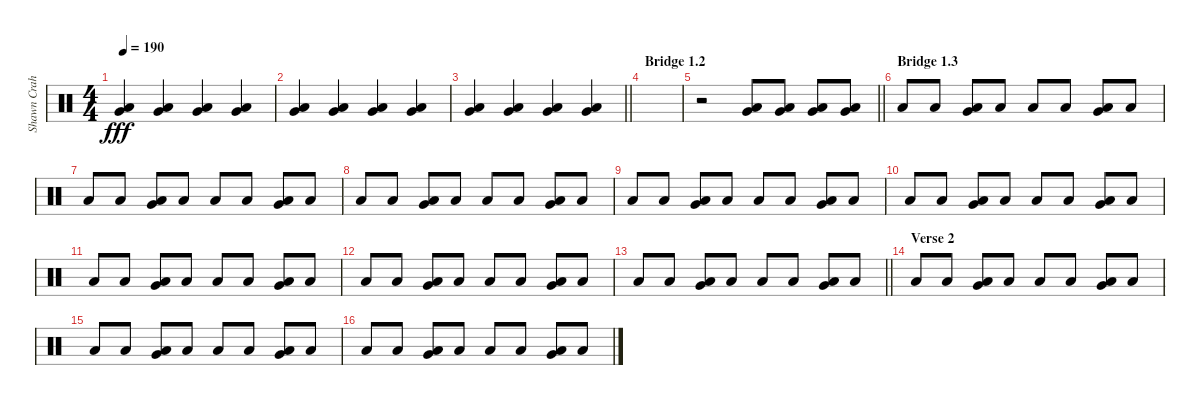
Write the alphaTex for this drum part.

\track ("Shawn Crahan" "Shawn Crah") {instrument percussion}
\staff {score}
\articulation defaults
\ts (4 4)
\tempo 190
\clef neutral
\ks c
("Very Low Tom (hit)" "Low Floor Tom (hit)").4{dy fff} ("Very Low Tom (hit)" "Low Floor Tom (hit)").4 ("Very Low Tom (hit)" "Low Floor Tom (hit)").4 ("Very Low Tom (hit)" "Low Floor Tom (hit)").4 |
("Very Low Tom (hit)" "Low Floor Tom (hit)").4 ("Very Low Tom (hit)" "Low Floor Tom (hit)").4 ("Very Low Tom (hit)" "Low Floor Tom (hit)").4 ("Very Low Tom (hit)" "Low Floor Tom (hit)").4 |
\barLineRight lightlight
("Very Low Tom (hit)" "Low Floor Tom (hit)").4 ("Very Low Tom (hit)" "Low Floor Tom (hit)").4 ("Very Low Tom (hit)" "Low Floor Tom (hit)").4 ("Very Low Tom (hit)" "Low Floor Tom (hit)").4 |
\section ("" "Bridge 1.2")
|
\barLineRight lightlight
r.2 ("Very Low Tom (hit)" "Low Floor Tom (hit)").8 ("Very Low Tom (hit)" "Low Floor Tom (hit)").8 ("Very Low Tom (hit)" "Low Floor Tom (hit)").8 ("Very Low Tom (hit)" "Low Floor Tom (hit)").8 |
\section ("" "Bridge 1.3")
"Low Floor Tom (hit)".8 "Low Floor Tom (hit)".8 ("Very Low Tom (hit)" "Low Floor Tom (hit)").8 "Low Floor Tom (hit)".8 "Low Floor Tom (hit)".8 "Low Floor Tom (hit)".8 ("Very Low Tom (hit)" "Low Floor Tom (hit)").8 "Low Floor Tom (hit)".8 |
"Low Floor Tom (hit)".8 "Low Floor Tom (hit)".8 ("Very Low Tom (hit)" "Low Floor Tom (hit)").8 "Low Floor Tom (hit)".8 "Low Floor Tom (hit)".8 "Low Floor Tom (hit)".8 ("Very Low Tom (hit)" "Low Floor Tom (hit)").8 "Low Floor Tom (hit)".8 |
"Low Floor Tom (hit)".8 "Low Floor Tom (hit)".8 ("Very Low Tom (hit)" "Low Floor Tom (hit)").8 "Low Floor Tom (hit)".8 "Low Floor Tom (hit)".8 "Low Floor Tom (hit)".8 ("Very Low Tom (hit)" "Low Floor Tom (hit)").8 "Low Floor Tom (hit)".8 |
"Low Floor Tom (hit)".8 "Low Floor Tom (hit)".8 ("Very Low Tom (hit)" "Low Floor Tom (hit)").8 "Low Floor Tom (hit)".8 "Low Floor Tom (hit)".8 "Low Floor Tom (hit)".8 ("Very Low Tom (hit)" "Low Floor Tom (hit)").8 "Low Floor Tom (hit)".8 |
"Low Floor Tom (hit)".8 "Low Floor Tom (hit)".8 ("Very Low Tom (hit)" "Low Floor Tom (hit)").8 "Low Floor Tom (hit)".8 "Low Floor Tom (hit)".8 "Low Floor Tom (hit)".8 ("Very Low Tom (hit)" "Low Floor Tom (hit)").8 "Low Floor Tom (hit)".8 |
"Low Floor Tom (hit)".8 "Low Floor Tom (hit)".8 ("Very Low Tom (hit)" "Low Floor Tom (hit)").8 "Low Floor Tom (hit)".8 "Low Floor Tom (hit)".8 "Low Floor Tom (hit)".8 ("Very Low Tom (hit)" "Low Floor Tom (hit)").8 "Low Floor Tom (hit)".8 |
"Low Floor Tom (hit)".8 "Low Floor Tom (hit)".8 ("Very Low Tom (hit)" "Low Floor Tom (hit)").8 "Low Floor Tom (hit)".8 "Low Floor Tom (hit)".8 "Low Floor Tom (hit)".8 ("Very Low Tom (hit)" "Low Floor Tom (hit)").8 "Low Floor Tom (hit)".8 |
\barLineRight lightlight "Low Floor Tom (hit)".8 "Low Floor Tom (hit)".8
("Very Low Tom (hit)" "Low Floor Tom (hit)").8 "Low Floor Tom (hit)".8 "Low Floor Tom (hit)".8 "Low Floor Tom (hit)".8 ("Very Low Tom (hit)" "Low Floor Tom (hit)").8 "Low Floor Tom (hit)".8 |
\section ("" "Verse 2")
"Low Floor Tom (hit)".8 "Low Floor Tom (hit)".8 ("Very Low Tom (hit)" "Low Floor Tom (hit)").8 "Low Floor Tom (hit)".8 "Low Floor Tom (hit)".8 "Low Floor Tom (hit)".8 ("Very Low Tom (hit)" "Low Floor Tom (hit)").8 "Low Floor Tom (hit)".8 |
"Low Floor Tom (hit)".8 "Low Floor Tom (hit)".8 ("Very Low Tom (hit)" "Low Floor Tom (hit)").8 "Low Floor Tom (hit)".8 "Low Floor Tom (hit)".8 "Low Floor Tom (hit)".8 ("Very Low Tom (hit)" "Low Floor Tom (hit)").8 "Low Floor Tom (hit)".8 |
"Low Floor Tom (hit)".8 "Low Floor Tom (hit)".8 ("Very Low Tom (hit)" "Low Floor Tom (hit)").8 "Low Floor Tom (hit)".8 "Low Floor Tom (hit)".8 "Low Floor Tom (hit)".8 ("Very Low Tom (hit)" "Low Floor Tom (hit)").8 "Low Floor Tom (hit)".8
